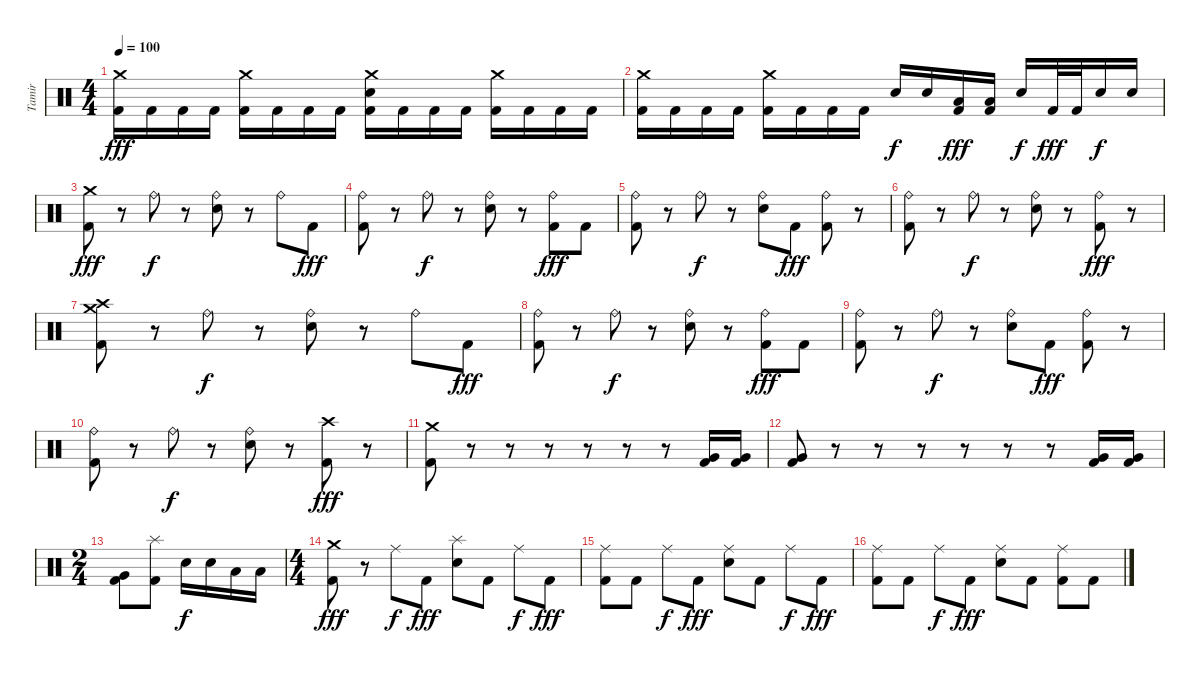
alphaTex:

\track ("Tamir" "Tamir") {instrument percussion}
\staff {score}
\articulation defaults
\ts (4 4)
\tempo 100
\clef neutral
\ks c
("Crash medium (hit)" "Kick (hit) 2").16{dy fff} "Kick (hit) 2".16 "Kick (hit) 2".16 "Kick (hit) 2".16 ("Crash medium (hit)" "Kick (hit) 2").16 "Kick (hit) 2".16 "Kick (hit) 2".16 "Kick (hit) 2".16 ("Crash medium (hit)" "Electric Snare (hit)" "Kick (hit) 2").16 "Kick (hit) 2".16 "Kick (hit) 2".16 "Kick (hit) 2".16 ("Crash medium (hit)" "Kick (hit) 2").16 "Kick (hit) 2".16 "Kick (hit) 2".16 "Kick (hit) 2".16 |
("Crash medium (hit)" "Kick (hit) 2").16 "Kick (hit) 2".16 "Kick (hit) 2".16 "Kick (hit) 2".16 ("Crash medium (hit)" "Kick (hit) 2").16 "Kick (hit) 2".16 "Kick (hit) 2".16 "Kick (hit) 2".16 "Electric Snare (hit)".16{dy f} "Electric Snare (hit)".16 ("Low Tom (hit)" "Kick (hit) 2").16{dy fff} ("Low Tom (hit)" "Kick (hit) 2").16 "Electric Snare (hit)".16{dy f} "Kick (hit) 2".32{dy fff} "Kick (hit) 2".32 "Electric Snare (hit)".16{dy f} "Electric Snare (hit)".16 |
("Crash medium (hit)" "Kick (hit) 2").8{dy fff} r.8 "Ride (bell)".8{dy f} r.8 ("Ride (bell)" "Electric Snare (hit)").8 r.8 "Ride (bell)".8 "Kick (hit) 2".8{dy fff} |
("Ride (bell)" "Kick (hit) 2").8 r.8 "Ride (bell)".8{dy f} r.8 ("Ride (bell)" "Electric Snare (hit)").8 r.8 ("Ride (bell)" "Kick (hit) 2").8{dy fff} "Kick (hit) 2".8 |
("Ride (bell)" "Kick (hit) 2").8 r.8 "Ride (bell)".8{dy f} r.8 ("Ride (bell)" "Electric Snare (hit)").8 "Kick (hit) 2".8{dy fff} ("Ride (bell)" "Kick (hit) 2").8 r.8 |
("Ride (bell)" "Kick (hit) 2").8 r.8 "Ride (bell)".8{dy f} r.8 ("Ride (bell)" "Electric Snare (hit)").8 r.8 ("Ride (bell)" "Kick (hit) 2").8{dy fff} r.8 |
("Crash medium (hit)" "Crash high (hit)" "Kick (hit) 2").8 r.8 "Ride (bell)".8{dy f} r.8 ("Ride (bell)" "Electric Snare (hit)").8 r.8 "Ride (bell)".8 "Kick (hit) 2".8{dy fff} |
("Ride (bell)" "Kick (hit) 2").8 r.8 "Ride (bell)".8{dy f} r.8 ("Ride (bell)" "Electric Snare (hit)").8 r.8 ("Ride (bell)" "Kick (hit) 2").8{dy fff} "Kick (hit) 2".8 |
("Ride (bell)" "Kick (hit) 2").8 r.8 "Ride (bell)".8{dy f} r.8 ("Ride (bell)" "Electric Snare (hit)").8 "Kick (hit) 2".8{dy fff} ("Ride (bell)" "Kick (hit) 2").8 r.8 |
("Ride (bell)" "Kick (hit) 2").8 r.8 "Ride (bell)".8{dy f} r.8 ("Ride (bell)" "Electric Snare (hit)").8 r.8 ("Crash high (hit)" "Kick (hit) 2").8{dy fff} r.8 |
("Crash medium (hit)" "Kick (hit) 2").8 r.8 r.8 r.8 r.8 r.8 r.8 ("Very Low Tom (hit)" "Kick (hit) 2").16 ("Very Low Tom (hit)" "Kick (hit) 2").16 |
("Very Low Tom (hit)" "Kick (hit) 2").8 r.8 r.8 r.8 r.8 r.8 r.8 ("Very Low Tom (hit)" "Kick (hit) 2").16 ("Very Low Tom (hit)" "Kick (hit) 2").16 |
\ts (2 4)
("Very Low Tom (hit)" "Kick (hit) 2").8 ("Splash (hit)" "Kick (hit) 2").8 "Electric Snare (hit)".16{dy f} "Electric Snare (hit)".16 "Low Tom (hit)".16 "Low Tom (hit)".16 |
\ts (4 4)
("Crash medium (hit)" "Kick (hit) 2").8{dy fff} r.8 "Ride (middle)".8{dy f} "Kick (hit) 2".8{dy fff} ("Splash (hit)" "Electric Snare (hit)").8 "Kick (hit) 2".8 "Ride (middle)".8{dy f} "Kick (hit) 2".8{dy fff} |
("Ride (middle)" "Kick (hit) 2").8 "Kick (hit) 2".8 "Ride (middle)".8{dy f} "Kick (hit) 2".8{dy fff} ("Ride (middle)" "Electric Snare (hit)").8 "Kick (hit) 2".8 "Ride (middle)".8{dy f} "Kick (hit) 2".8{dy fff} |
("Ride (middle)" "Kick (hit) 2").8 "Kick (hit) 2".8 "Ride (middle)".8{dy f} "Kick (hit) 2".8{dy fff} ("Ride (middle)" "Electric Snare (hit)").8 "Kick (hit) 2".8 ("Ride (middle)" "Kick (hit) 2").8 "Kick (hit) 2".8
